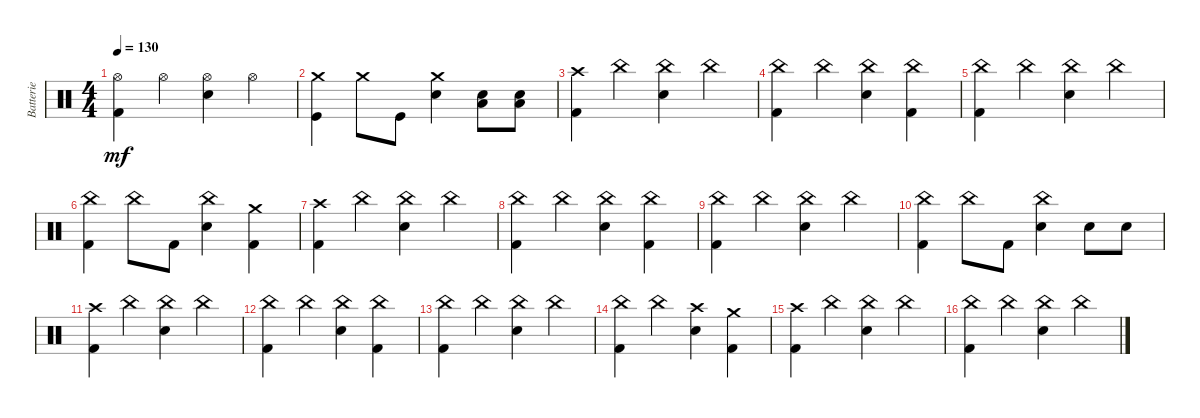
\track ("Batterie" "Batterie") {instrument percussion}
\staff {score}
\articulation defaults
\ts (4 4)
\tempo 130
\clef neutral
\ks c
("Hi-Hat (open)" "Kick (hit) 2").4{dy mf} "Hi-Hat (open)".4 ("Hi-Hat (open)" "Electric Snare (hit)").4 "Hi-Hat (open)".4 |
("Crash medium (hit)" "Kick (hit)").4 "Crash medium (hit)".8 "Kick (hit)".8 ("Crash medium (hit)" "Electric Snare (hit)").4 ("Electric Snare (hit)" "Low Floor Tom (hit)").8 ("Electric Snare (hit)" "Low Floor Tom (hit)").8 |
("Crash high (hit)" "Kick (hit) 2").4 "China (hit)".4 ("China (hit)" "Electric Snare (hit)").4 "China (hit)".4 |
("China (hit)" "Kick (hit) 2").4 "China (hit)".4 ("China (hit)" "Electric Snare (hit)").4 ("China (hit)" "Kick (hit) 2").4 |
("China (hit)" "Kick (hit) 2").4 "China (hit)".4 ("China (hit)" "Electric Snare (hit)").4 "China (hit)".4 |
("China (hit)" "Kick (hit) 2").4 "China (hit)".8 "Kick (hit) 2".8 ("China (hit)" "Electric Snare (hit)").4 ("Crash medium (hit)" "Kick (hit) 2").4 |
("Crash high (hit)" "Kick (hit) 2").4 "China (hit)".4 ("China (hit)" "Electric Snare (hit)").4 "China (hit)".4 |
("China (hit)" "Kick (hit) 2").4 "China (hit)".4 ("China (hit)" "Electric Snare (hit)").4 ("China (hit)" "Kick (hit) 2").4 |
("China (hit)" "Kick (hit) 2").4 "China (hit)".4 ("China (hit)" "Electric Snare (hit)").4 "China (hit)".4 |
("China (hit)" "Kick (hit) 2").4 "China (hit)".8 "Kick (hit) 2".8 ("China (hit)" "Electric Snare (hit)").4 "Electric Snare (hit)".8 "Electric Snare (hit)".8 |
("Crash high (hit)" "Kick (hit) 2").4 "China (hit)".4 ("China (hit)" "Electric Snare (hit)").4 "China (hit)".4 |
("China (hit)" "Kick (hit) 2").4 "China (hit)".4 ("China (hit)" "Electric Snare (hit)").4 ("China (hit)" "Kick (hit) 2").4 |
("China (hit)" "Kick (hit) 2").4 "China (hit)".4 ("China (hit)" "Electric Snare (hit)").4 "China (hit)".4 |
("China (hit)" "Kick (hit) 2").4 "China (hit)".4 ("Crash high (hit)" "Electric Snare (hit)").4 ("Crash medium (hit)" "Kick (hit) 2").4 |
("Crash high (hit)" "Kick (hit) 2").4 "China (hit)".4 ("China (hit)" "Electric Snare (hit)").4 "China (hit)".4 |
("China (hit)" "Kick (hit) 2").4 "China (hit)".4 ("China (hit)" "Electric Snare (hit)").4 "China (hit)".4
